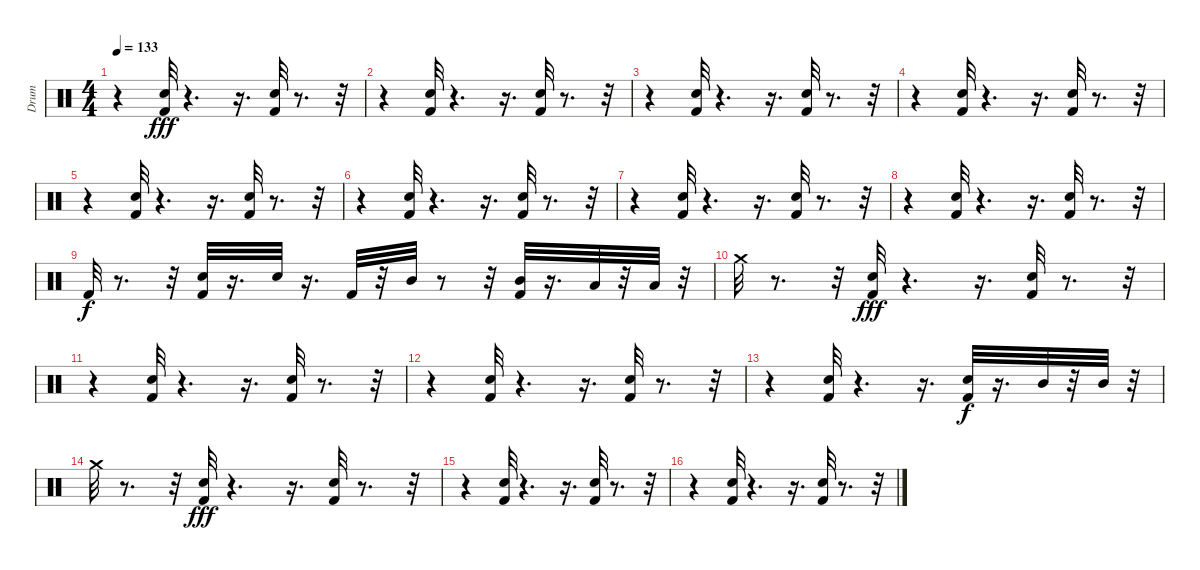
\track ("Drum" "Drum") {instrument percussion}
\staff {score}
\articulation defaults
\ts (4 4)
\tempo 133
\clef neutral
\ks c
r.4{dy fff} ("Electric Snare (hit)" "Kick (hit) 2").32 r.4{d} r.16{d} ("Electric Snare (hit)" "Kick (hit) 2").32 r.8{d} r.32 |
r.4 ("Electric Snare (hit)" "Kick (hit) 2").32 r.4{d} r.16{d} ("Electric Snare (hit)" "Kick (hit) 2").32 r.8{d} r.32 |
r.4 ("Electric Snare (hit)" "Kick (hit) 2").32 r.4{d} r.16{d} ("Electric Snare (hit)" "Kick (hit) 2").32 r.8{d} r.32 |
r.4 ("Electric Snare (hit)" "Kick (hit) 2").32 r.4{d} r.16{d} ("Electric Snare (hit)" "Kick (hit) 2").32 r.8{d} r.32 |
r.4 ("Electric Snare (hit)" "Kick (hit) 2").32 r.4{d} r.16{d} ("Electric Snare (hit)" "Kick (hit) 2").32 r.8{d} r.32 |
r.4 ("Electric Snare (hit)" "Kick (hit) 2").32 r.4{d} r.16{d} ("Electric Snare (hit)" "Kick (hit) 2").32 r.8{d} r.32 |
r.4 ("Electric Snare (hit)" "Kick (hit) 2").32 r.4{d} r.16{d} ("Electric Snare (hit)" "Kick (hit) 2").32 r.8{d} r.32 |
r.4 ("Electric Snare (hit)" "Kick (hit) 2").32 r.4{d} r.16{d} ("Electric Snare (hit)" "Kick (hit) 2").32 r.8{d} r.32 |
"Kick (hit) 2".32{dy f} r.8{d} r.32 ("Kick (hit) 2" "Electric Snare (hit)").32 r.16{d} "Electric Snare (hit)".32 r.16{d} "Kick (hit) 2".32 r.32 "Mid Tom (hit)".32 r.8 r.32 ("Kick (hit) 2" "Mid Tom (hit)").32 r.16{d} "Low Tom (hit)".32 r.32 "Low Tom (hit)".32 r.32 |
"Crash medium (hit)".32 r.8{d} r.32 ("Electric Snare (hit)" "Kick (hit) 2").32{dy fff} r.4{d} r.16{d} ("Electric Snare (hit)" "Kick (hit) 2").32 r.8{d} r.32 |
r.4 ("Electric Snare (hit)" "Kick (hit) 2").32 r.4{d} r.16{d} ("Electric Snare (hit)" "Kick (hit) 2").32 r.8{d} r.32 |
r.4 ("Electric Snare (hit)" "Kick (hit) 2").32 r.4{d} r.16{d} ("Electric Snare (hit)" "Kick (hit) 2").32 r.8{d} r.32 |
r.4 ("Electric Snare (hit)" "Kick (hit) 2").32 r.4{d} r.16{d} ("Kick (hit) 2" "Electric Snare (hit)").32{dy f} r.16{d} "Mid Tom (hit)".32 r.32 "Mid Tom (hit)".32 r.32 |
"Crash medium (hit)".32 r.8{d} r.32 ("Electric Snare (hit)" "Kick (hit) 2").32{dy fff} r.4{d} r.16{d} ("Electric Snare (hit)" "Kick (hit) 2").32 r.8{d} r.32 |
r.4 ("Electric Snare (hit)" "Kick (hit) 2").32 r.4{d} r.16{d} ("Electric Snare (hit)" "Kick (hit) 2").32 r.8{d} r.32 |
r.4 ("Electric Snare (hit)" "Kick (hit) 2").32 r.4{d} r.16{d} ("Electric Snare (hit)" "Kick (hit) 2").32 r.8{d} r.32
